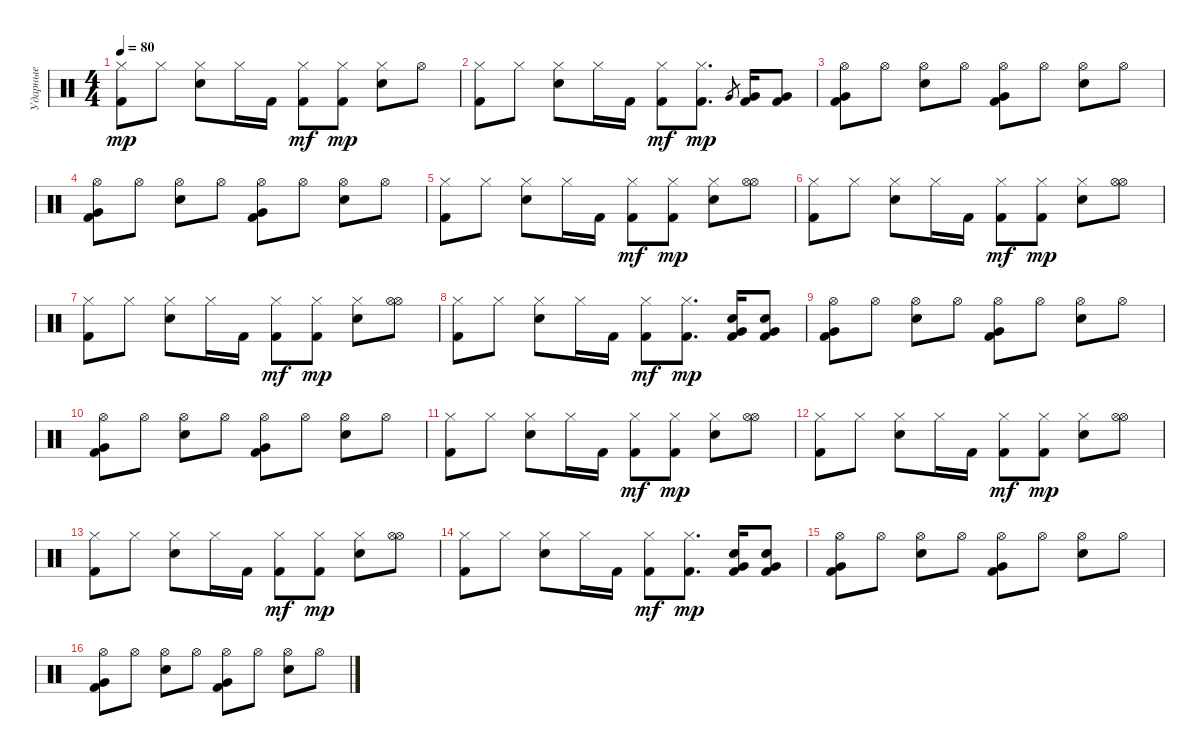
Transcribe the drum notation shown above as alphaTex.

\track ("Ударные" "Ударные") {instrument percussion}
\staff {score}
\articulation defaults
\ts (4 4)
\tempo 80
\clef neutral
\ks c
("Kick (hit) 2" "Hi-Hat (closed)").8{dy mp} "Hi-Hat (closed)".8 ("Snare (hit) 2" "Hi-Hat (closed)").8 "Hi-Hat (closed)".16 "Kick (hit) 2".16 ("Kick (hit) 2" "Hi-Hat (closed)").8{dy mf} ("Kick (hit) 2" "Hi-Hat (closed)").8{dy mp} ("Snare (hit) 2" "Hi-Hat (closed)").8 "Hi-Hat (open)".8 |
("Kick (hit) 2" "Hi-Hat (closed)").8 "Hi-Hat (closed)".8 ("Snare (hit) 2" "Hi-Hat (closed)").8 "Hi-Hat (closed)".16 "Kick (hit) 2".16 ("Kick (hit) 2" "Hi-Hat (closed)").8{dy mf} ("Kick (hit) 2" "Hi-Hat (closed)").8{d dy mp} "Very Low Tom (hit)".8{gr} ("Kick (hit) 2" "Very Low Tom (hit)").16 ("Kick (hit) 2" "Very Low Tom (hit)").8 |
("Kick (hit) 2" "Very Low Tom (hit)" "Hi-Hat (open)").8 "Hi-Hat (open)".8 ("Snare (hit) 2" "Hi-Hat (open)").8 "Hi-Hat (open)".8 ("Kick (hit) 2" "Very Low Tom (hit)" "Hi-Hat (open)").8 "Hi-Hat (open)".8 ("Snare (hit) 2" "Hi-Hat (open)").8 "Hi-Hat (open)".8 |
("Kick (hit) 2" "Very Low Tom (hit)" "Hi-Hat (open)").8 "Hi-Hat (open)".8 ("Snare (hit) 2" "Hi-Hat (open)").8 "Hi-Hat (open)".8 ("Kick (hit) 2" "Very Low Tom (hit)" "Hi-Hat (open)").8 "Hi-Hat (open)".8 ("Snare (hit) 2" "Hi-Hat (open)").8 "Hi-Hat (open)".8 |
("Kick (hit) 2" "Hi-Hat (closed)").8 "Hi-Hat (closed)".8 ("Snare (hit) 2" "Hi-Hat (closed)").8 "Hi-Hat (closed)".16 "Kick (hit) 2".16 ("Kick (hit) 2" "Hi-Hat (closed)").8{dy mf} ("Kick (hit) 2" "Hi-Hat (closed)").8{dy mp} ("Snare (hit) 2" "Hi-Hat (closed)").8 ("Hi-Hat (open)" "Hi-Hat (open)").8 |
("Kick (hit) 2" "Hi-Hat (closed)").8 "Hi-Hat (closed)".8 ("Snare (hit) 2" "Hi-Hat (closed)").8 "Hi-Hat (closed)".16 "Kick (hit) 2".16 ("Kick (hit) 2" "Hi-Hat (closed)").8{dy mf} ("Kick (hit) 2" "Hi-Hat (closed)").8{dy mp} ("Snare (hit) 2" "Hi-Hat (closed)").8 ("Hi-Hat (open)" "Hi-Hat (open)").8 |
("Kick (hit) 2" "Hi-Hat (closed)").8 "Hi-Hat (closed)".8 ("Snare (hit) 2" "Hi-Hat (closed)").8 "Hi-Hat (closed)".16 "Kick (hit) 2".16 ("Kick (hit) 2" "Hi-Hat (closed)").8{dy mf} ("Kick (hit) 2" "Hi-Hat (closed)").8{dy mp} ("Snare (hit) 2" "Hi-Hat (closed)").8 ("Hi-Hat (open)" "Hi-Hat (open)").8 |
("Kick (hit) 2" "Hi-Hat (closed)").8 "Hi-Hat (closed)".8 ("Snare (hit) 2" "Hi-Hat (closed)").8 "Hi-Hat (closed)".16 "Kick (hit) 2".16 ("Kick (hit) 2" "Hi-Hat (closed)").8{dy mf} ("Kick (hit) 2" "Hi-Hat (closed)").8{d dy mp} ("Kick (hit) 2" "Snare (hit) 2" "Very Low Tom (hit)").16 ("Kick (hit) 2" "Snare (hit) 2" "Very Low Tom (hit)").8 |
("Kick (hit) 2" "Very Low Tom (hit)" "Hi-Hat (open)").8 "Hi-Hat (open)".8 ("Snare (hit) 2" "Hi-Hat (open)").8 "Hi-Hat (open)".8 ("Kick (hit) 2" "Very Low Tom (hit)" "Hi-Hat (open)").8 "Hi-Hat (open)".8 ("Snare (hit) 2" "Hi-Hat (open)").8 "Hi-Hat (open)".8 |
("Kick (hit) 2" "Very Low Tom (hit)" "Hi-Hat (open)").8 "Hi-Hat (open)".8 ("Snare (hit) 2" "Hi-Hat (open)").8 "Hi-Hat (open)".8 ("Kick (hit) 2" "Very Low Tom (hit)" "Hi-Hat (open)").8 "Hi-Hat (open)".8 ("Snare (hit) 2" "Hi-Hat (open)").8 "Hi-Hat (open)".8 |
("Kick (hit) 2" "Hi-Hat (closed)").8 "Hi-Hat (closed)".8 ("Snare (hit) 2" "Hi-Hat (closed)").8 "Hi-Hat (closed)".16 "Kick (hit) 2".16 ("Kick (hit) 2" "Hi-Hat (closed)").8{dy mf} ("Kick (hit) 2" "Hi-Hat (closed)").8{dy mp} ("Snare (hit) 2" "Hi-Hat (closed)").8 ("Hi-Hat (open)" "Hi-Hat (open)").8 |
("Kick (hit) 2" "Hi-Hat (closed)").8 "Hi-Hat (closed)".8 ("Snare (hit) 2" "Hi-Hat (closed)").8 "Hi-Hat (closed)".16 "Kick (hit) 2".16 ("Kick (hit) 2" "Hi-Hat (closed)").8{dy mf} ("Kick (hit) 2" "Hi-Hat (closed)").8{dy mp} ("Snare (hit) 2" "Hi-Hat (closed)").8 ("Hi-Hat (open)" "Hi-Hat (open)").8 |
("Kick (hit) 2" "Hi-Hat (closed)").8 "Hi-Hat (closed)".8 ("Snare (hit) 2" "Hi-Hat (closed)").8 "Hi-Hat (closed)".16 "Kick (hit) 2".16 ("Kick (hit) 2" "Hi-Hat (closed)").8{dy mf} ("Kick (hit) 2" "Hi-Hat (closed)").8{dy mp} ("Snare (hit) 2" "Hi-Hat (closed)").8 ("Hi-Hat (open)" "Hi-Hat (open)").8 |
("Kick (hit) 2" "Hi-Hat (closed)").8 "Hi-Hat (closed)".8 ("Snare (hit) 2" "Hi-Hat (closed)").8 "Hi-Hat (closed)".16 "Kick (hit) 2".16 ("Kick (hit) 2" "Hi-Hat (closed)").8{dy mf} ("Kick (hit) 2" "Hi-Hat (closed)").8{d dy mp} ("Kick (hit) 2" "Snare (hit) 2" "Very Low Tom (hit)").16 ("Kick (hit) 2" "Snare (hit) 2" "Very Low Tom (hit)").8 |
("Kick (hit) 2" "Very Low Tom (hit)" "Hi-Hat (open)").8 "Hi-Hat (open)".8 ("Snare (hit) 2" "Hi-Hat (open)").8 "Hi-Hat (open)".8 ("Kick (hit) 2" "Very Low Tom (hit)" "Hi-Hat (open)").8 "Hi-Hat (open)".8 ("Snare (hit) 2" "Hi-Hat (open)").8 "Hi-Hat (open)".8 |
("Kick (hit) 2" "Very Low Tom (hit)" "Hi-Hat (open)").8 "Hi-Hat (open)".8 ("Snare (hit) 2" "Hi-Hat (open)").8 "Hi-Hat (open)".8 ("Kick (hit) 2" "Very Low Tom (hit)" "Hi-Hat (open)").8 "Hi-Hat (open)".8 ("Snare (hit) 2" "Hi-Hat (open)").8 "Hi-Hat (open)".8
